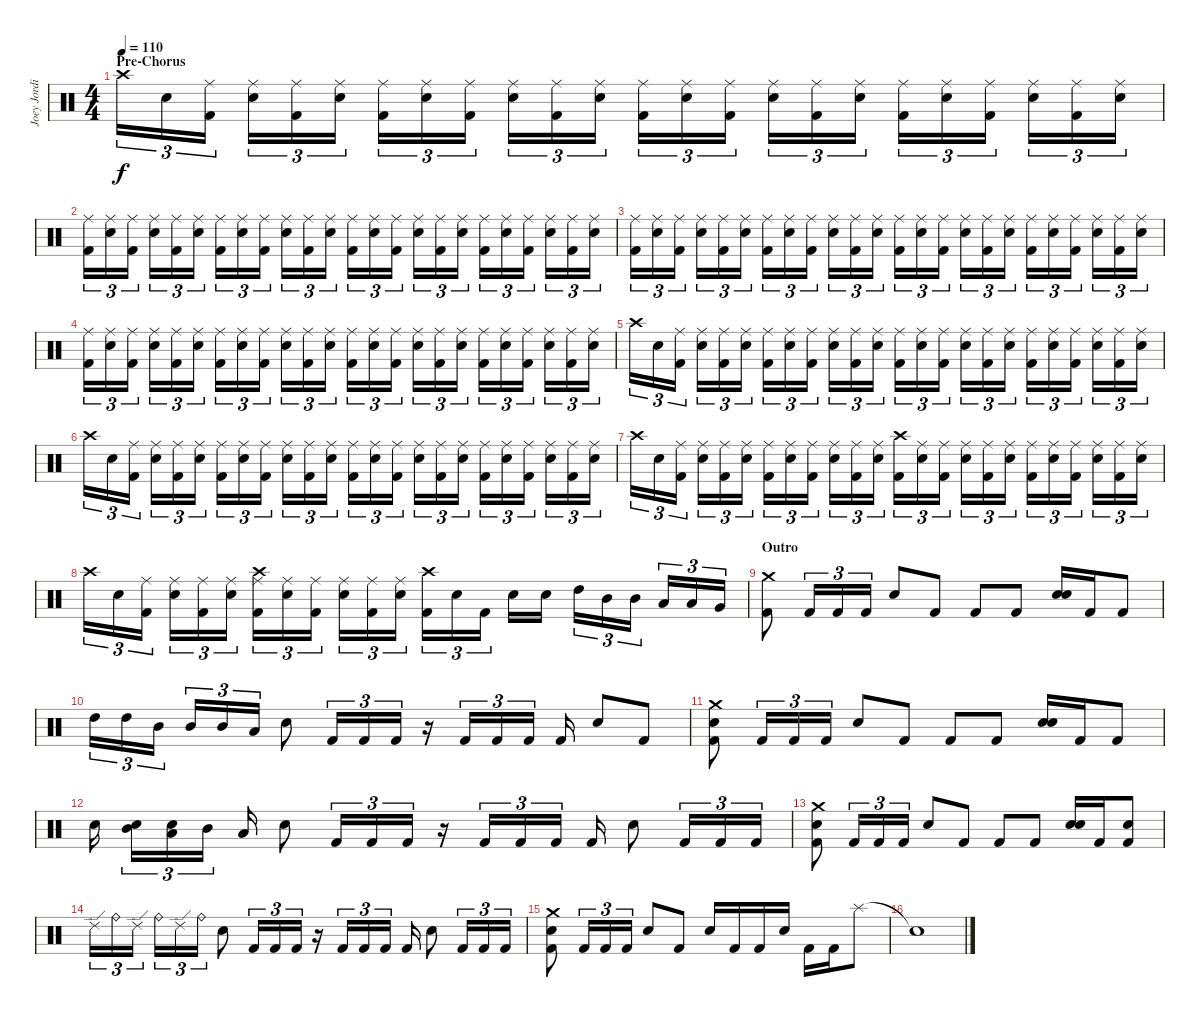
\track ("Joey Jordison" "Joey Jordi") {instrument percussion}
\staff {score}
\articulation defaults
\ts (4 4)
\section ("" "Pre-Chorus")
\tempo 110
\clef neutral
\ks c "Crash high (hit)".16{tu (3 2) dy f} "Snare (hit) 2".16{tu (3 2)}
("Ride (middle)" "Kick (hit) 2").16{tu (3 2)} ("Ride (middle)" "Snare (hit) 2").16{tu (3 2)} ("Ride (middle)" "Kick (hit) 2").16{tu (3 2)} ("Ride (middle)" "Snare (hit) 2").16{tu (3 2)} ("Ride (middle)" "Kick (hit) 2").16{tu (3 2)} ("Ride (middle)" "Snare (hit) 2").16{tu (3 2)} ("Ride (middle)" "Kick (hit) 2").16{tu (3 2)} ("Ride (middle)" "Snare (hit) 2").16{tu (3 2)} ("Ride (middle)" "Kick (hit) 2").16{tu (3 2)} ("Ride (middle)" "Snare (hit) 2").16{tu (3 2)} ("Ride (middle)" "Kick (hit) 2").16{tu (3 2)} ("Ride (middle)" "Snare (hit) 2").16{tu (3 2)} ("Ride (middle)" "Kick (hit) 2").16{tu (3 2)} ("Ride (middle)" "Snare (hit) 2").16{tu (3 2)} ("Ride (middle)" "Kick (hit) 2").16{tu (3 2)} ("Ride (middle)" "Snare (hit) 2").16{tu (3 2)} ("Ride (middle)" "Kick (hit) 2").16{tu (3 2)} ("Ride (middle)" "Snare (hit) 2").16{tu (3 2)} ("Ride (middle)" "Kick (hit) 2").16{tu (3 2)} ("Ride (middle)" "Snare (hit) 2").16{tu (3 2)} ("Ride (middle)" "Kick (hit) 2").16{tu (3 2)} ("Ride (middle)" "Snare (hit) 2").16{tu (3 2)} |
("Ride (middle)" "Kick (hit) 2").16{tu (3 2)} ("Ride (middle)" "Snare (hit) 2").16{tu (3 2)} ("Ride (middle)" "Kick (hit) 2").16{tu (3 2)} ("Ride (middle)" "Snare (hit) 2").16{tu (3 2)} ("Ride (middle)" "Kick (hit) 2").16{tu (3 2)} ("Ride (middle)" "Snare (hit) 2").16{tu (3 2)} ("Ride (middle)" "Kick (hit) 2").16{tu (3 2)} ("Ride (middle)" "Snare (hit) 2").16{tu (3 2)} ("Ride (middle)" "Kick (hit) 2").16{tu (3 2)} ("Ride (middle)" "Snare (hit) 2").16{tu (3 2)} ("Ride (middle)" "Kick (hit) 2").16{tu (3 2)} ("Ride (middle)" "Snare (hit) 2").16{tu (3 2)} ("Ride (middle)" "Kick (hit) 2").16{tu (3 2)} ("Ride (middle)" "Snare (hit) 2").16{tu (3 2)} ("Ride (middle)" "Kick (hit) 2").16{tu (3 2)} ("Ride (middle)" "Snare (hit) 2").16{tu (3 2)} ("Ride (middle)" "Kick (hit) 2").16{tu (3 2)} ("Ride (middle)" "Snare (hit) 2").16{tu (3 2)} ("Ride (middle)" "Kick (hit) 2").16{tu (3 2)} ("Ride (middle)" "Snare (hit) 2").16{tu (3 2)} ("Ride (middle)" "Kick (hit) 2").16{tu (3 2)} ("Ride (middle)" "Snare (hit) 2").16{tu (3 2)} ("Ride (middle)" "Kick (hit) 2").16{tu (3 2)} ("Ride (middle)" "Snare (hit) 2").16{tu (3 2)} |
("Ride (middle)" "Kick (hit) 2").16{tu (3 2)} ("Ride (middle)" "Snare (hit) 2").16{tu (3 2)} ("Ride (middle)" "Kick (hit) 2").16{tu (3 2)} ("Ride (middle)" "Snare (hit) 2").16{tu (3 2)} ("Ride (middle)" "Kick (hit) 2").16{tu (3 2)} ("Ride (middle)" "Snare (hit) 2").16{tu (3 2)} ("Ride (middle)" "Kick (hit) 2").16{tu (3 2)} ("Ride (middle)" "Snare (hit) 2").16{tu (3 2)} ("Ride (middle)" "Kick (hit) 2").16{tu (3 2)} ("Ride (middle)" "Snare (hit) 2").16{tu (3 2)} ("Ride (middle)" "Kick (hit) 2").16{tu (3 2)} ("Ride (middle)" "Snare (hit) 2").16{tu (3 2)} ("Ride (middle)" "Kick (hit) 2").16{tu (3 2)} ("Ride (middle)" "Snare (hit) 2").16{tu (3 2)} ("Ride (middle)" "Kick (hit) 2").16{tu (3 2)} ("Ride (middle)" "Snare (hit) 2").16{tu (3 2)} ("Ride (middle)" "Kick (hit) 2").16{tu (3 2)} ("Ride (middle)" "Snare (hit) 2").16{tu (3 2)} ("Ride (middle)" "Kick (hit) 2").16{tu (3 2)} ("Ride (middle)" "Snare (hit) 2").16{tu (3 2)} ("Ride (middle)" "Kick (hit) 2").16{tu (3 2)} ("Ride (middle)" "Snare (hit) 2").16{tu (3 2)} ("Ride (middle)" "Kick (hit) 2").16{tu (3 2)} ("Ride (middle)" "Snare (hit) 2").16{tu (3 2)} |
("Ride (middle)" "Kick (hit) 2").16{tu (3 2)} ("Ride (middle)" "Snare (hit) 2").16{tu (3 2)} ("Ride (middle)" "Kick (hit) 2").16{tu (3 2)} ("Ride (middle)" "Snare (hit) 2").16{tu (3 2)} ("Ride (middle)" "Kick (hit) 2").16{tu (3 2)} ("Ride (middle)" "Snare (hit) 2").16{tu (3 2)} ("Ride (middle)" "Kick (hit) 2").16{tu (3 2)} ("Ride (middle)" "Snare (hit) 2").16{tu (3 2)} ("Ride (middle)" "Kick (hit) 2").16{tu (3 2)} ("Ride (middle)" "Snare (hit) 2").16{tu (3 2)} ("Ride (middle)" "Kick (hit) 2").16{tu (3 2)} ("Ride (middle)" "Snare (hit) 2").16{tu (3 2)} ("Ride (middle)" "Kick (hit) 2").16{tu (3 2)} ("Ride (middle)" "Snare (hit) 2").16{tu (3 2)} ("Ride (middle)" "Kick (hit) 2").16{tu (3 2)} ("Ride (middle)" "Snare (hit) 2").16{tu (3 2)} ("Ride (middle)" "Kick (hit) 2").16{tu (3 2)} ("Ride (middle)" "Snare (hit) 2").16{tu (3 2)} ("Ride (middle)" "Kick (hit) 2").16{tu (3 2)} ("Ride (middle)" "Snare (hit) 2").16{tu (3 2)} ("Ride (middle)" "Kick (hit) 2").16{tu (3 2)} ("Ride (middle)" "Snare (hit) 2").16{tu (3 2)} ("Ride (middle)" "Kick (hit) 2").16{tu (3 2)} ("Ride (middle)" "Snare (hit) 2").16{tu (3 2)} |
"Crash high (hit)".16{tu (3 2)} "Snare (hit) 2".16{tu (3 2)} ("Ride (middle)" "Kick (hit) 2").16{tu (3 2)} ("Ride (middle)" "Snare (hit) 2").16{tu (3 2)} ("Ride (middle)" "Kick (hit) 2").16{tu (3 2)} ("Ride (middle)" "Snare (hit) 2").16{tu (3 2)} ("Ride (middle)" "Kick (hit) 2").16{tu (3 2)} ("Ride (middle)" "Snare (hit) 2").16{tu (3 2)} ("Ride (middle)" "Kick (hit) 2").16{tu (3 2)} ("Ride (middle)" "Snare (hit) 2").16{tu (3 2)} ("Ride (middle)" "Kick (hit) 2").16{tu (3 2)} ("Ride (middle)" "Snare (hit) 2").16{tu (3 2)} ("Ride (middle)" "Kick (hit) 2").16{tu (3 2)} ("Ride (middle)" "Snare (hit) 2").16{tu (3 2)} ("Ride (middle)" "Kick (hit) 2").16{tu (3 2)} ("Ride (middle)" "Snare (hit) 2").16{tu (3 2)} ("Ride (middle)" "Kick (hit) 2").16{tu (3 2)} ("Ride (middle)" "Snare (hit) 2").16{tu (3 2)} ("Ride (middle)" "Kick (hit) 2").16{tu (3 2)} ("Ride (middle)" "Snare (hit) 2").16{tu (3 2)} ("Ride (middle)" "Kick (hit) 2").16{tu (3 2)} ("Ride (middle)" "Snare (hit) 2").16{tu (3 2)} ("Ride (middle)" "Kick (hit) 2").16{tu (3 2)} ("Ride (middle)" "Snare (hit) 2").16{tu (3 2)} |
"Crash high (hit)".16{tu (3 2)} "Snare (hit) 2".16{tu (3 2)} ("Ride (middle)" "Kick (hit) 2").16{tu (3 2)} ("Ride (middle)" "Snare (hit) 2").16{tu (3 2)} ("Ride (middle)" "Kick (hit) 2").16{tu (3 2)} ("Ride (middle)" "Snare (hit) 2").16{tu (3 2)} ("Ride (middle)" "Kick (hit) 2").16{tu (3 2)} ("Ride (middle)" "Snare (hit) 2").16{tu (3 2)} ("Ride (middle)" "Kick (hit) 2").16{tu (3 2)} ("Ride (middle)" "Snare (hit) 2").16{tu (3 2)} ("Ride (middle)" "Kick (hit) 2").16{tu (3 2)} ("Ride (middle)" "Snare (hit) 2").16{tu (3 2)} ("Ride (middle)" "Kick (hit) 2").16{tu (3 2)} ("Ride (middle)" "Snare (hit) 2").16{tu (3 2)} ("Ride (middle)" "Kick (hit) 2").16{tu (3 2)} ("Ride (middle)" "Snare (hit) 2").16{tu (3 2)} ("Ride (middle)" "Kick (hit) 2").16{tu (3 2)} ("Ride (middle)" "Snare (hit) 2").16{tu (3 2)} ("Ride (middle)" "Kick (hit) 2").16{tu (3 2)} ("Ride (middle)" "Snare (hit) 2").16{tu (3 2)} ("Ride (middle)" "Kick (hit) 2").16{tu (3 2)} ("Ride (middle)" "Snare (hit) 2").16{tu (3 2)} ("Ride (middle)" "Kick (hit) 2").16{tu (3 2)} ("Ride (middle)" "Snare (hit) 2").16{tu (3 2)} |
"Crash high (hit)".16{tu (3 2)} "Snare (hit) 2".16{tu (3 2)} ("Ride (middle)" "Kick (hit) 2").16{tu (3 2)} ("Ride (middle)" "Snare (hit) 2").16{tu (3 2)} ("Ride (middle)" "Kick (hit) 2").16{tu (3 2)} ("Ride (middle)" "Snare (hit) 2").16{tu (3 2)} ("Ride (middle)" "Kick (hit) 2").16{tu (3 2)} ("Ride (middle)" "Snare (hit) 2").16{tu (3 2)} ("Ride (middle)" "Kick (hit) 2").16{tu (3 2)} ("Ride (middle)" "Snare (hit) 2").16{tu (3 2)} ("Ride (middle)" "Kick (hit) 2").16{tu (3 2)} ("Ride (middle)" "Snare (hit) 2").16{tu (3 2)} ("Crash high (hit)" "Kick (hit) 2").16{tu (3 2)} ("Ride (middle)" "Snare (hit) 2").16{tu (3 2)} ("Ride (middle)" "Kick (hit) 2").16{tu (3 2)} ("Ride (middle)" "Snare (hit) 2").16{tu (3 2)} ("Ride (middle)" "Kick (hit) 2").16{tu (3 2)} ("Ride (middle)" "Snare (hit) 2").16{tu (3 2)} ("Ride (middle)" "Kick (hit) 2").16{tu (3 2)} ("Ride (middle)" "Snare (hit) 2").16{tu (3 2)} ("Ride (middle)" "Kick (hit) 2").16{tu (3 2)} ("Ride (middle)" "Snare (hit) 2").16{tu (3 2)} ("Ride (middle)" "Kick (hit) 2").16{tu (3 2)} ("Ride (middle)" "Snare (hit) 2").16{tu (3 2)} |
"Crash high (hit)".16{tu (3 2)} "Snare (hit) 2".16{tu (3 2)} ("Ride (middle)" "Kick (hit) 2").16{tu (3 2)} ("Ride (middle)" "Snare (hit) 2").16{tu (3 2)} ("Ride (middle)" "Kick (hit) 2").16{tu (3 2)} ("Ride (middle)" "Snare (hit) 2").16{tu (3 2)} ("Crash high (hit)" "Ride (middle)" "Kick (hit) 2").16{tu (3 2)} ("Ride (middle)" "Snare (hit) 2").16{tu (3 2)} ("Ride (middle)" "Kick (hit) 2").16{tu (3 2)} ("Ride (middle)" "Snare (hit) 2").16{tu (3 2)} ("Ride (middle)" "Kick (hit) 2").16{tu (3 2)} ("Ride (middle)" "Snare (hit) 2").16{tu (3 2)} ("Crash high (hit)" "Kick (hit) 2").16{tu (3 2)} "Snare (hit) 2".16{tu (3 2)} "Kick (hit) 2".16{tu (3 2)} "Snare (hit) 2".16 "Snare (hit) 2".16 "High Tom (hit)".16{tu (3 2)} "Mid Tom (hit)".16{tu (3 2)} "Mid Tom (hit)".16{tu (3 2)} "Low Tom (hit)".16{tu (3 2)} "Low Tom (hit)".16{tu (3 2)} "Very Low Tom (hit)".16{tu (3 2)} |
\section ("" "Outro")
("Crash medium (hit)" "Kick (hit) 2").8 "Kick (hit) 2".16{tu (3 2)} "Kick (hit) 2".16{tu (3 2)} "Kick (hit) 2".16{tu (3 2)} "Snare (hit) 2".8 "Kick (hit) 2".8 "Kick (hit) 2".8 "Kick (hit) 2".8 ("Snare (hit) 2" "Snare (hit) 2").16{bu 240} "Kick (hit) 2".16 "Kick (hit) 2".8 |
"High Tom (hit)".16{tu (3 2)} "High Tom (hit)".16{tu (3 2)} "Mid Tom (hit)".16{tu (3 2)} "Mid Tom (hit)".16{tu (3 2)} "Mid Tom (hit)".16{tu (3 2)} "Low Tom (hit)".16{tu (3 2)} "Snare (hit) 2".8 "Kick (hit) 2".16{tu (3 2)} "Kick (hit) 2".16{tu (3 2)} "Kick (hit) 2".16{tu (3 2)} r.16 "Kick (hit) 2".16{tu (3 2)} "Kick (hit) 2".16{tu (3 2)} "Kick (hit) 2".16{tu (3 2)} "Kick (hit) 2".16 "Snare (hit) 2".8 "Kick (hit) 2".8 |
("Crash medium (hit)" "Snare (hit) 2" "Kick (hit) 2").8 "Kick (hit) 2".16{tu (3 2)} "Kick (hit) 2".16{tu (3 2)} "Kick (hit) 2".16{tu (3 2)} "Snare (hit) 2".8 "Kick (hit) 2".8 "Kick (hit) 2".8 "Kick (hit) 2".8 ("Snare (hit) 2" "Snare (hit) 2").16{bu 240} "Kick (hit) 2".16 "Kick (hit) 2".8 |
"Snare (hit) 2".16 ("Mid Tom (hit)" "Snare (hit) 2").16{tu (3 2)} ("Low Tom (hit)" "Snare (hit) 2").16{tu (3 2)} "Mid Tom (hit)".16{tu (3 2)} "Low Tom (hit)".16 "Snare (hit) 2".8 "Kick (hit) 2".16{tu (3 2)} "Kick (hit) 2".16{tu (3 2)} "Kick (hit) 2".16{tu (3 2)} r.16 "Kick (hit) 2".16{tu (3 2)} "Kick (hit) 2".16{tu (3 2)} "Kick (hit) 2".16{tu (3 2)} "Kick (hit) 2".16 "Snare (hit) 2".8 "Kick (hit) 2".16{tu (3 2)} "Kick (hit) 2".16{tu (3 2)} "Kick (hit) 2".16{tu (3 2)} |
("Crash medium (hit)" "Snare (hit) 2" "Kick (hit) 2").8 "Kick (hit) 2".16{tu (3 2)} "Kick (hit) 2".16{tu (3 2)} "Kick (hit) 2".16{tu (3 2)} "Snare (hit) 2".8 "Kick (hit) 2".8 "Kick (hit) 2".8 "Kick (hit) 2".8 ("Snare (hit) 2" "Snare (hit) 2").16{bu 240} "Kick (hit) 2".16 ("Snare (hit) 2" "Kick (hit) 2").8 |
"Ride (edge) 2".16{tu (3 2)} "Ride (bell)".16{tu (3 2)} "Ride (edge) 2".16{tu (3 2)} "Ride (bell)".16{tu (3 2)} "Ride (edge) 2".16{tu (3 2)} "Ride (bell)".16{tu (3 2)} "Snare (hit) 2".8 "Kick (hit) 2".16{tu (3 2)} "Kick (hit) 2".16{tu (3 2)} "Kick (hit) 2".16{tu (3 2)} r.16 "Kick (hit) 2".16{tu (3 2)} "Kick (hit) 2".16{tu (3 2)} "Kick (hit) 2".16{tu (3 2)} "Kick (hit) 2".16 "Snare (hit) 2".8 "Kick (hit) 2".16{tu (3 2)} "Kick (hit) 2".16{tu (3 2)} "Kick (hit) 2".16{tu (3 2)} |
("Crash medium (hit)" "Snare (hit) 2" "Kick (hit) 2").8 "Kick (hit) 2".16{tu (3 2)} "Kick (hit) 2".16{tu (3 2)} "Kick (hit) 2".16{tu (3 2)} "Snare (hit) 2".8 "Kick (hit) 2".8 "Snare (hit) 2".16 "Kick (hit) 2".16 "Kick (hit) 2".16 "Snare (hit) 2".16 "Kick (hit) 2".16 "Kick (hit) 2".16 "Splash (hit)".8 |
"Snare (hit)"{t}.1
